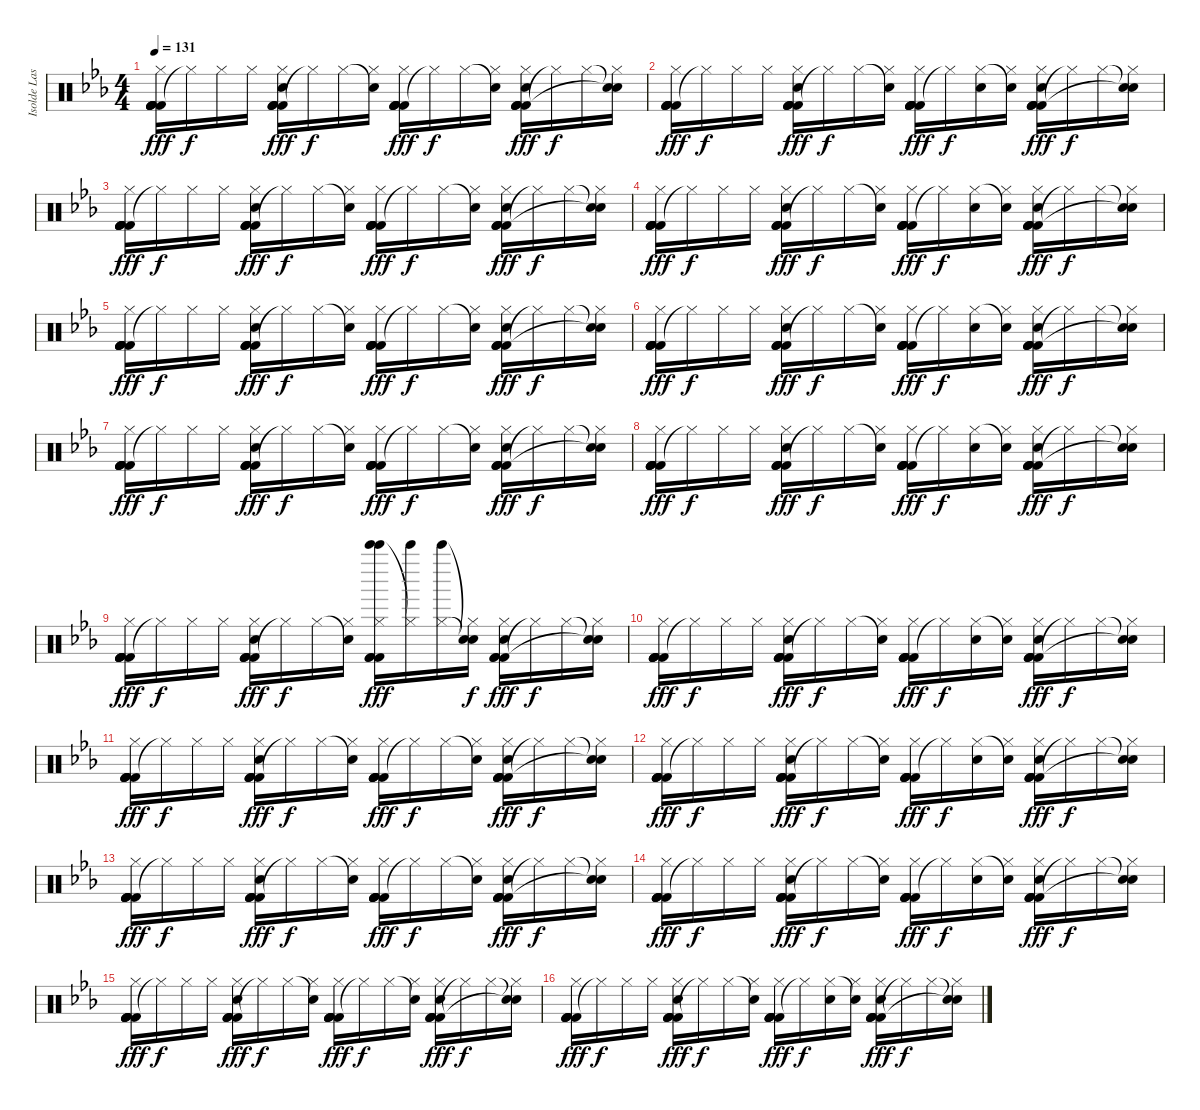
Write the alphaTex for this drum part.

\track ("Isolde Lasoen (Percussion)" "Isolde Las") {instrument percussion}
\staff {score}
\articulation defaults
\ts (4 4)
\tempo 131
\clef neutral
\ks cminor
("Kick (hit) 2" "Kick (hit) 2" "Kick (hit) 2" "Kick (hit) 2" "Hi-Hat (closed)" "Kick (hit) 2").16{dy fff} "Hi-Hat (closed)"{t}.16{dy f} "Hi-Hat (closed)".16 "Hi-Hat (closed)".16 ("Kick (hit) 2" "Kick (hit) 2" "Kick (hit) 2" "Kick (hit) 2" "Hi-Hat (closed)" "Hand Clap (hit)").16{dy fff} "Hi-Hat (closed)"{t}.16{dy f} "Hi-Hat (closed)".16 ("Snare (hit)"{t} "Hi-Hat (closed)").16 ("Kick (hit) 2" "Kick (hit) 2" "Kick (hit) 2" "Kick (hit) 2" "Hi-Hat (closed)" "Kick (hit) 2").16{dy fff} "Hi-Hat (closed)"{t}.16{dy f} "Hi-Hat (closed)".16 ("Snare (hit)"{t} "Hi-Hat (closed)").16 ("Kick (hit) 2" "Kick (hit) 2" "Kick (hit) 2" "Kick (hit) 2" "Hi-Hat (closed)" "Hand Clap (hit)").16{dy fff} "Hi-Hat (closed)"{t}.16{dy f} "Hi-Hat (closed)".16 ("Snare (hit)"{t} "Hi-Hat (closed)" "Snare (hit)"{t}).16 |
("Kick (hit) 2" "Kick (hit) 2" "Kick (hit) 2" "Kick (hit) 2" "Hi-Hat (closed)" "Kick (hit) 2").16{dy fff} "Hi-Hat (closed)"{t}.16{dy f} "Hi-Hat (closed)".16 "Hi-Hat (closed)".16 ("Kick (hit) 2" "Kick (hit) 2" "Kick (hit) 2" "Kick (hit) 2" "Hi-Hat (closed)" "Hand Clap (hit)").16{dy fff} "Hi-Hat (closed)"{t}.16{dy f} "Hi-Hat (closed)".16 ("Snare (hit)"{t} "Hi-Hat (closed)").16 ("Kick (hit) 2" "Kick (hit) 2" "Kick (hit) 2" "Kick (hit) 2" "Hi-Hat (closed)" "Kick (hit) 2").16{dy fff} "Hi-Hat (closed)"{t}.16{dy f} ("Hi-Hat (closed)" "Hand Clap (hit)").16 ("Snare (hit)"{t} "Hi-Hat (closed)").16 ("Kick (hit) 2" "Kick (hit) 2" "Kick (hit) 2" "Kick (hit) 2" "Hi-Hat (closed)" "Hand Clap (hit)").16{dy fff} "Hi-Hat (closed)"{t}.16{dy f} "Hi-Hat (closed)".16 ("Snare (hit)"{t} "Hi-Hat (closed)" "Snare (hit)"{t}).16 |
("Kick (hit) 2" "Kick (hit) 2" "Kick (hit) 2" "Kick (hit) 2" "Hi-Hat (closed)" "Kick (hit) 2").16{dy fff} "Hi-Hat (closed)"{t}.16{dy f} "Hi-Hat (closed)".16 "Hi-Hat (closed)".16 ("Kick (hit) 2" "Kick (hit) 2" "Kick (hit) 2" "Kick (hit) 2" "Hi-Hat (closed)" "Hand Clap (hit)").16{dy fff} "Hi-Hat (closed)"{t}.16{dy f} "Hi-Hat (closed)".16 ("Snare (hit)"{t} "Hi-Hat (closed)").16 ("Kick (hit) 2" "Kick (hit) 2" "Kick (hit) 2" "Kick (hit) 2" "Hi-Hat (closed)" "Kick (hit) 2").16{dy fff} "Hi-Hat (closed)"{t}.16{dy f} "Hi-Hat (closed)".16 ("Snare (hit)"{t} "Hi-Hat (closed)").16 ("Kick (hit) 2" "Kick (hit) 2" "Kick (hit) 2" "Kick (hit) 2" "Hi-Hat (closed)" "Hand Clap (hit)").16{dy fff} "Hi-Hat (closed)"{t}.16{dy f} "Hi-Hat (closed)".16 ("Snare (hit)"{t} "Hi-Hat (closed)" "Snare (hit)"{t}).16 |
("Kick (hit) 2" "Kick (hit) 2" "Kick (hit) 2" "Kick (hit) 2" "Hi-Hat (closed)" "Kick (hit) 2").16{dy fff} "Hi-Hat (closed)"{t}.16{dy f} "Hi-Hat (closed)".16 "Hi-Hat (closed)".16 ("Kick (hit) 2" "Kick (hit) 2" "Kick (hit) 2" "Kick (hit) 2" "Hi-Hat (closed)" "Hand Clap (hit)").16{dy fff} "Hi-Hat (closed)"{t}.16{dy f} "Hi-Hat (closed)".16 ("Snare (hit)"{t} "Hi-Hat (closed)").16 ("Kick (hit) 2" "Kick (hit) 2" "Kick (hit) 2" "Kick (hit) 2" "Hi-Hat (closed)" "Kick (hit) 2").16{dy fff} "Hi-Hat (closed)"{t}.16{dy f} ("Hi-Hat (closed)" "Hand Clap (hit)").16 ("Snare (hit)"{t} "Hi-Hat (closed)").16 ("Kick (hit) 2" "Kick (hit) 2" "Kick (hit) 2" "Kick (hit) 2" "Hi-Hat (closed)" "Hand Clap (hit)").16{dy fff} "Hi-Hat (closed)"{t}.16{dy f} "Hi-Hat (closed)".16 ("Snare (hit)"{t} "Hi-Hat (closed)" "Snare (hit)"{t}).16 |
("Kick (hit) 2" "Kick (hit) 2" "Kick (hit) 2" "Kick (hit) 2" "Hi-Hat (closed)" "Kick (hit) 2").16{dy fff} "Hi-Hat (closed)"{t}.16{dy f} "Hi-Hat (closed)".16 "Hi-Hat (closed)".16 ("Kick (hit) 2" "Kick (hit) 2" "Kick (hit) 2" "Kick (hit) 2" "Hi-Hat (closed)" "Hand Clap (hit)").16{dy fff} "Hi-Hat (closed)"{t}.16{dy f} "Hi-Hat (closed)".16 ("Snare (hit)"{t} "Hi-Hat (closed)").16 ("Kick (hit) 2" "Kick (hit) 2" "Kick (hit) 2" "Kick (hit) 2" "Hi-Hat (closed)" "Kick (hit) 2").16{dy fff} "Hi-Hat (closed)"{t}.16{dy f} "Hi-Hat (closed)".16 ("Snare (hit)"{t} "Hi-Hat (closed)").16 ("Kick (hit) 2" "Kick (hit) 2" "Kick (hit) 2" "Kick (hit) 2" "Hi-Hat (closed)" "Hand Clap (hit)").16{dy fff} "Hi-Hat (closed)"{t}.16{dy f} "Hi-Hat (closed)".16 ("Snare (hit)"{t} "Hi-Hat (closed)" "Snare (hit)"{t}).16 |
("Kick (hit) 2" "Kick (hit) 2" "Kick (hit) 2" "Kick (hit) 2" "Hi-Hat (closed)" "Kick (hit) 2").16{dy fff} "Hi-Hat (closed)"{t}.16{dy f} "Hi-Hat (closed)".16 "Hi-Hat (closed)".16 ("Kick (hit) 2" "Kick (hit) 2" "Kick (hit) 2" "Kick (hit) 2" "Hi-Hat (closed)" "Hand Clap (hit)").16{dy fff} "Hi-Hat (closed)"{t}.16{dy f} "Hi-Hat (closed)".16 ("Snare (hit)"{t} "Hi-Hat (closed)").16 ("Kick (hit) 2" "Kick (hit) 2" "Kick (hit) 2" "Kick (hit) 2" "Hi-Hat (closed)" "Kick (hit) 2").16{dy fff} "Hi-Hat (closed)"{t}.16{dy f} ("Hi-Hat (closed)" "Hand Clap (hit)").16 ("Snare (hit)"{t} "Hi-Hat (closed)").16 ("Kick (hit) 2" "Kick (hit) 2" "Kick (hit) 2" "Kick (hit) 2" "Hi-Hat (closed)" "Hand Clap (hit)").16{dy fff} "Hi-Hat (closed)"{t}.16{dy f} "Hi-Hat (closed)".16 ("Snare (hit)"{t} "Hi-Hat (closed)" "Snare (hit)"{t}).16 |
("Kick (hit) 2" "Kick (hit) 2" "Kick (hit) 2" "Kick (hit) 2" "Hi-Hat (closed)" "Kick (hit) 2").16{dy fff} "Hi-Hat (closed)"{t}.16{dy f} "Hi-Hat (closed)".16 "Hi-Hat (closed)".16 ("Kick (hit) 2" "Kick (hit) 2" "Kick (hit) 2" "Kick (hit) 2" "Hi-Hat (closed)" "Hand Clap (hit)").16{dy fff} "Hi-Hat (closed)"{t}.16{dy f} "Hi-Hat (closed)".16 ("Snare (hit)"{t} "Hi-Hat (closed)").16 ("Kick (hit) 2" "Kick (hit) 2" "Kick (hit) 2" "Kick (hit) 2" "Hi-Hat (closed)" "Kick (hit) 2").16{dy fff} "Hi-Hat (closed)"{t}.16{dy f} "Hi-Hat (closed)".16 ("Snare (hit)"{t} "Hi-Hat (closed)").16 ("Kick (hit) 2" "Kick (hit) 2" "Kick (hit) 2" "Kick (hit) 2" "Hi-Hat (closed)" "Hand Clap (hit)").16{dy fff} "Hi-Hat (closed)"{t}.16{dy f} "Hi-Hat (closed)".16 ("Snare (hit)"{t} "Hi-Hat (closed)" "Snare (hit)"{t}).16 |
("Kick (hit) 2" "Kick (hit) 2" "Kick (hit) 2" "Kick (hit) 2" "Hi-Hat (closed)" "Kick (hit) 2").16{dy fff} "Hi-Hat (closed)"{t}.16{dy f} "Hi-Hat (closed)".16 "Hi-Hat (closed)".16 ("Kick (hit) 2" "Kick (hit) 2" "Kick (hit) 2" "Kick (hit) 2" "Hi-Hat (closed)" "Hand Clap (hit)").16{dy fff} "Hi-Hat (closed)"{t}.16{dy f} "Hi-Hat (closed)".16 ("Snare (hit)"{t} "Hi-Hat (closed)").16 ("Kick (hit) 2" "Kick (hit) 2" "Kick (hit) 2" "Kick (hit) 2" "Hi-Hat (closed)" "Kick (hit) 2").16{dy fff} "Hi-Hat (closed)"{t}.16{dy f} ("Hi-Hat (closed)" "Hand Clap (hit)").16 ("Snare (hit)"{t} "Hi-Hat (closed)").16 ("Kick (hit) 2" "Kick (hit) 2" "Kick (hit) 2" "Kick (hit) 2" "Hi-Hat (closed)" "Hand Clap (hit)").16{dy fff} "Hi-Hat (closed)"{t}.16{dy f} "Hi-Hat (closed)".16 ("Snare (hit)"{t} "Hi-Hat (closed)" "Snare (hit)"{t}).16 |
("Kick (hit) 2" "Kick (hit) 2" "Kick (hit) 2" "Kick (hit) 2" "Hi-Hat (closed)" "Kick (hit) 2").16{dy fff} "Hi-Hat (closed)"{t}.16{dy f} "Hi-Hat (closed)".16 "Hi-Hat (closed)".16 ("Kick (hit) 2" "Kick (hit) 2" "Kick (hit) 2" "Kick (hit) 2" "Hi-Hat (closed)" "Hand Clap (hit)").16{dy fff} "Hi-Hat (closed)"{t}.16{dy f} "Hi-Hat (closed)".16 ("Snare (hit)"{t} "Hi-Hat (closed)").16 ("Bell Tree (hit)" "Bell Tree (hit)" "Kick (hit) 2" "Kick (hit) 2" "Hi-Hat (closed)" "Kick (hit) 2").16{dy fff} ("Bell Tree (hit)" "Hi-Hat (closed)"{t}).16 ("Bell Tree (hit)" "Hi-Hat (closed)").16 ("Snare (hit)"{t} "Snare (hit)"{t} "Hi-Hat (closed)").16{dy f} ("Kick (hit) 2" "Kick (hit) 2" "Kick (hit) 2" "Hi-Hat (closed)" "Hand Clap (hit)").16{dy fff} "Hi-Hat (closed)"{t}.16{dy f} "Hi-Hat (closed)".16 ("Snare (hit)"{t} "Hi-Hat (closed)" "Snare (hit)"{t}).16 |
("Kick (hit) 2" "Kick (hit) 2" "Kick (hit) 2" "Kick (hit) 2" "Hi-Hat (closed)" "Kick (hit) 2").16{dy fff} "Hi-Hat (closed)"{t}.16{dy f} "Hi-Hat (closed)".16 "Hi-Hat (closed)".16 ("Kick (hit) 2" "Kick (hit) 2" "Kick (hit) 2" "Kick (hit) 2" "Hi-Hat (closed)" "Hand Clap (hit)").16{dy fff} "Hi-Hat (closed)"{t}.16{dy f} "Hi-Hat (closed)".16 ("Snare (hit)"{t} "Hi-Hat (closed)").16 ("Kick (hit) 2" "Kick (hit) 2" "Kick (hit) 2" "Kick (hit) 2" "Hi-Hat (closed)" "Kick (hit) 2").16{dy fff} "Hi-Hat (closed)"{t}.16{dy f} ("Hi-Hat (closed)" "Hand Clap (hit)").16 ("Snare (hit)"{t} "Hi-Hat (closed)").16 ("Kick (hit) 2" "Kick (hit) 2" "Kick (hit) 2" "Kick (hit) 2" "Hi-Hat (closed)" "Hand Clap (hit)").16{dy fff} "Hi-Hat (closed)"{t}.16{dy f} "Hi-Hat (closed)".16 ("Snare (hit)"{t} "Hi-Hat (closed)" "Snare (hit)"{t}).16 |
("Kick (hit) 2" "Kick (hit) 2" "Kick (hit) 2" "Kick (hit) 2" "Hi-Hat (closed)" "Kick (hit) 2").16{dy fff} "Hi-Hat (closed)"{t}.16{dy f} "Hi-Hat (closed)".16 "Hi-Hat (closed)".16 ("Kick (hit) 2" "Kick (hit) 2" "Kick (hit) 2" "Kick (hit) 2" "Hi-Hat (closed)" "Hand Clap (hit)").16{dy fff} "Hi-Hat (closed)"{t}.16{dy f} "Hi-Hat (closed)".16 ("Snare (hit)"{t} "Hi-Hat (closed)").16 ("Kick (hit) 2" "Kick (hit) 2" "Kick (hit) 2" "Kick (hit) 2" "Hi-Hat (closed)" "Kick (hit) 2").16{dy fff} "Hi-Hat (closed)"{t}.16{dy f} "Hi-Hat (closed)".16 ("Snare (hit)"{t} "Hi-Hat (closed)").16 ("Kick (hit) 2" "Kick (hit) 2" "Kick (hit) 2" "Kick (hit) 2" "Hi-Hat (closed)" "Hand Clap (hit)").16{dy fff} "Hi-Hat (closed)"{t}.16{dy f} "Hi-Hat (closed)".16 ("Snare (hit)"{t} "Hi-Hat (closed)" "Snare (hit)"{t}).16 |
("Kick (hit) 2" "Kick (hit) 2" "Kick (hit) 2" "Kick (hit) 2" "Hi-Hat (closed)" "Kick (hit) 2").16{dy fff} "Hi-Hat (closed)"{t}.16{dy f} "Hi-Hat (closed)".16 "Hi-Hat (closed)".16 ("Kick (hit) 2" "Kick (hit) 2" "Kick (hit) 2" "Kick (hit) 2" "Hi-Hat (closed)" "Hand Clap (hit)").16{dy fff} "Hi-Hat (closed)"{t}.16{dy f} "Hi-Hat (closed)".16 ("Snare (hit)"{t} "Hi-Hat (closed)").16 ("Kick (hit) 2" "Kick (hit) 2" "Kick (hit) 2" "Kick (hit) 2" "Hi-Hat (closed)" "Kick (hit) 2").16{dy fff} "Hi-Hat (closed)"{t}.16{dy f} ("Hi-Hat (closed)" "Hand Clap (hit)").16 ("Snare (hit)"{t} "Hi-Hat (closed)").16 ("Kick (hit) 2" "Kick (hit) 2" "Kick (hit) 2" "Kick (hit) 2" "Hi-Hat (closed)" "Hand Clap (hit)").16{dy fff} "Hi-Hat (closed)"{t}.16{dy f} "Hi-Hat (closed)".16 ("Snare (hit)"{t} "Hi-Hat (closed)" "Snare (hit)"{t}).16 |
("Kick (hit) 2" "Kick (hit) 2" "Kick (hit) 2" "Kick (hit) 2" "Hi-Hat (closed)" "Kick (hit) 2").16{dy fff} "Hi-Hat (closed)"{t}.16{dy f} "Hi-Hat (closed)".16 "Hi-Hat (closed)".16 ("Kick (hit) 2" "Kick (hit) 2" "Kick (hit) 2" "Kick (hit) 2" "Hi-Hat (closed)" "Hand Clap (hit)").16{dy fff} "Hi-Hat (closed)"{t}.16{dy f} "Hi-Hat (closed)".16 ("Snare (hit)"{t} "Hi-Hat (closed)").16 ("Kick (hit) 2" "Kick (hit) 2" "Kick (hit) 2" "Kick (hit) 2" "Hi-Hat (closed)" "Kick (hit) 2").16{dy fff} "Hi-Hat (closed)"{t}.16{dy f} "Hi-Hat (closed)".16 ("Snare (hit)"{t} "Hi-Hat (closed)").16 ("Kick (hit) 2" "Kick (hit) 2" "Kick (hit) 2" "Kick (hit) 2" "Hi-Hat (closed)" "Hand Clap (hit)").16{dy fff} "Hi-Hat (closed)"{t}.16{dy f} "Hi-Hat (closed)".16 ("Snare (hit)"{t} "Hi-Hat (closed)" "Snare (hit)"{t}).16 |
("Kick (hit) 2" "Kick (hit) 2" "Kick (hit) 2" "Kick (hit) 2" "Hi-Hat (closed)" "Kick (hit) 2").16{dy fff} "Hi-Hat (closed)"{t}.16{dy f} "Hi-Hat (closed)".16 "Hi-Hat (closed)".16 ("Kick (hit) 2" "Kick (hit) 2" "Kick (hit) 2" "Kick (hit) 2" "Hi-Hat (closed)" "Hand Clap (hit)").16{dy fff} "Hi-Hat (closed)"{t}.16{dy f} "Hi-Hat (closed)".16 ("Snare (hit)"{t} "Hi-Hat (closed)").16 ("Kick (hit) 2" "Kick (hit) 2" "Kick (hit) 2" "Kick (hit) 2" "Hi-Hat (closed)" "Kick (hit) 2").16{dy fff} "Hi-Hat (closed)"{t}.16{dy f} ("Hi-Hat (closed)" "Hand Clap (hit)").16 ("Snare (hit)"{t} "Hi-Hat (closed)").16 ("Kick (hit) 2" "Kick (hit) 2" "Kick (hit) 2" "Kick (hit) 2" "Hi-Hat (closed)" "Hand Clap (hit)").16{dy fff} "Hi-Hat (closed)"{t}.16{dy f} "Hi-Hat (closed)".16 ("Snare (hit)"{t} "Hi-Hat (closed)" "Snare (hit)"{t}).16 |
("Kick (hit) 2" "Kick (hit) 2" "Kick (hit) 2" "Kick (hit) 2" "Hi-Hat (closed)" "Kick (hit) 2").16{dy fff} "Hi-Hat (closed)"{t}.16{dy f} "Hi-Hat (closed)".16 "Hi-Hat (closed)".16 ("Kick (hit) 2" "Kick (hit) 2" "Kick (hit) 2" "Kick (hit) 2" "Hi-Hat (closed)" "Hand Clap (hit)").16{dy fff} "Hi-Hat (closed)"{t}.16{dy f} "Hi-Hat (closed)".16 ("Snare (hit)"{t} "Hi-Hat (closed)").16 ("Kick (hit) 2" "Kick (hit) 2" "Kick (hit) 2" "Kick (hit) 2" "Hi-Hat (closed)" "Kick (hit) 2").16{dy fff} "Hi-Hat (closed)"{t}.16{dy f} "Hi-Hat (closed)".16 ("Snare (hit)"{t} "Hi-Hat (closed)").16 ("Kick (hit) 2" "Kick (hit) 2" "Kick (hit) 2" "Kick (hit) 2" "Hi-Hat (closed)" "Hand Clap (hit)").16{dy fff} "Hi-Hat (closed)"{t}.16{dy f} "Hi-Hat (closed)".16 ("Snare (hit)"{t} "Hi-Hat (closed)" "Snare (hit)"{t}).16 |
("Kick (hit) 2" "Kick (hit) 2" "Kick (hit) 2" "Kick (hit) 2" "Hi-Hat (closed)" "Kick (hit) 2").16{dy fff} "Hi-Hat (closed)"{t}.16{dy f} "Hi-Hat (closed)".16 "Hi-Hat (closed)".16 ("Kick (hit) 2" "Kick (hit) 2" "Kick (hit) 2" "Kick (hit) 2" "Hi-Hat (closed)" "Hand Clap (hit)").16{dy fff} "Hi-Hat (closed)"{t}.16{dy f} "Hi-Hat (closed)".16 ("Snare (hit)"{t} "Hi-Hat (closed)").16 ("Kick (hit) 2" "Kick (hit) 2" "Kick (hit) 2" "Kick (hit) 2" "Hi-Hat (closed)" "Kick (hit) 2").16{dy fff} "Hi-Hat (closed)"{t}.16{dy f} ("Hi-Hat (closed)" "Hand Clap (hit)").16 ("Snare (hit)"{t} "Hi-Hat (closed)").16 ("Kick (hit) 2" "Kick (hit) 2" "Kick (hit) 2" "Kick (hit) 2" "Hi-Hat (closed)" "Hand Clap (hit)").16{dy fff} "Hi-Hat (closed)"{t}.16{dy f} "Hi-Hat (closed)".16 ("Snare (hit)"{t} "Hi-Hat (closed)" "Snare (hit)"{t}).16
